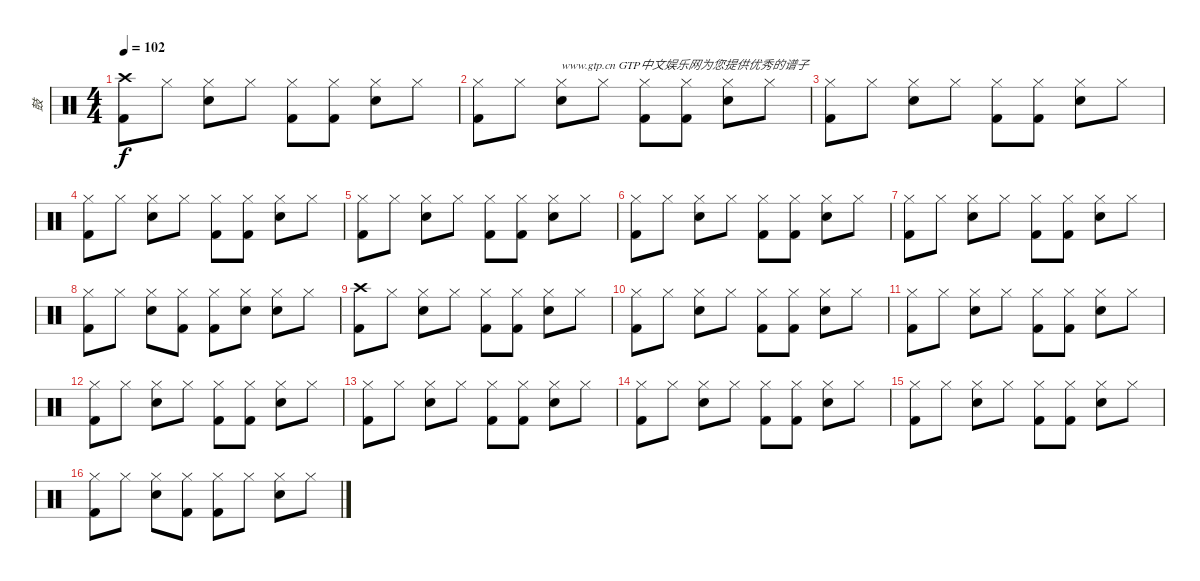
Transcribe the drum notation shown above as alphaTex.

\track ("鼓" "鼓") {instrument percussion}
\staff {score}
\articulation defaults
\ts (4 4)
\tempo 102
\clef neutral
\ks c
("Crash high (hit)" "Kick (hit) 2").8{dy f} "Hi-Hat (closed)".8 ("Hi-Hat (closed)" "Electric Snare (hit)").8 "Hi-Hat (closed)".8 ("Hi-Hat (closed)" "Kick (hit) 2").8 ("Hi-Hat (closed)" "Kick (hit) 2").8 ("Hi-Hat (closed)" "Electric Snare (hit)").8 "Hi-Hat (closed)".8 |
("Hi-Hat (closed)" "Kick (hit) 2").8 "Hi-Hat (closed)".8 ("Hi-Hat (closed)" "Electric Snare (hit)").8{txt "www.gtp.cn GTP中文娱乐网为您提供优秀的谱子"} "Hi-Hat (closed)".8 ("Hi-Hat (closed)" "Kick (hit) 2").8 ("Hi-Hat (closed)" "Kick (hit) 2").8 ("Hi-Hat (closed)" "Electric Snare (hit)").8 "Hi-Hat (closed)".8 |
("Hi-Hat (closed)" "Kick (hit) 2").8 "Hi-Hat (closed)".8 ("Hi-Hat (closed)" "Electric Snare (hit)").8 "Hi-Hat (closed)".8 ("Hi-Hat (closed)" "Kick (hit) 2").8 ("Hi-Hat (closed)" "Kick (hit) 2").8 ("Hi-Hat (closed)" "Electric Snare (hit)").8 "Hi-Hat (closed)".8 |
("Hi-Hat (closed)" "Kick (hit) 2").8 "Hi-Hat (closed)".8 ("Hi-Hat (closed)" "Electric Snare (hit)").8 "Hi-Hat (closed)".8 ("Hi-Hat (closed)" "Kick (hit) 2").8 ("Hi-Hat (closed)" "Kick (hit) 2").8 ("Hi-Hat (closed)" "Electric Snare (hit)").8 "Hi-Hat (closed)".8 |
("Hi-Hat (closed)" "Kick (hit) 2").8 "Hi-Hat (closed)".8 ("Hi-Hat (closed)" "Electric Snare (hit)").8 "Hi-Hat (closed)".8 ("Hi-Hat (closed)" "Kick (hit) 2").8 ("Hi-Hat (closed)" "Kick (hit) 2").8 ("Hi-Hat (closed)" "Electric Snare (hit)").8 "Hi-Hat (closed)".8 |
("Hi-Hat (closed)" "Kick (hit) 2").8 "Hi-Hat (closed)".8 ("Hi-Hat (closed)" "Electric Snare (hit)").8 "Hi-Hat (closed)".8 ("Hi-Hat (closed)" "Kick (hit) 2").8 ("Hi-Hat (closed)" "Kick (hit) 2").8 ("Hi-Hat (closed)" "Electric Snare (hit)").8 "Hi-Hat (closed)".8 |
("Hi-Hat (closed)" "Kick (hit) 2").8 "Hi-Hat (closed)".8 ("Hi-Hat (closed)" "Electric Snare (hit)").8 "Hi-Hat (closed)".8 ("Hi-Hat (closed)" "Kick (hit) 2").8 ("Hi-Hat (closed)" "Kick (hit) 2").8 ("Hi-Hat (closed)" "Electric Snare (hit)").8 "Hi-Hat (closed)".8 |
("Hi-Hat (closed)" "Kick (hit) 2").8 "Hi-Hat (closed)".8 ("Hi-Hat (closed)" "Electric Snare (hit)").8 ("Hi-Hat (closed)" "Kick (hit) 2").8 ("Hi-Hat (closed)" "Kick (hit) 2").8 ("Hi-Hat (closed)" "Electric Snare (hit)").8 ("Hi-Hat (closed)" "Electric Snare (hit)").8 "Hi-Hat (closed)".8 |
("Crash high (hit)" "Kick (hit) 2").8 "Hi-Hat (closed)".8 ("Hi-Hat (closed)" "Electric Snare (hit)").8 "Hi-Hat (closed)".8 ("Hi-Hat (closed)" "Kick (hit) 2").8 ("Hi-Hat (closed)" "Kick (hit) 2").8 ("Hi-Hat (closed)" "Electric Snare (hit)").8 "Hi-Hat (closed)".8 |
("Hi-Hat (closed)" "Kick (hit) 2").8 "Hi-Hat (closed)".8 ("Hi-Hat (closed)" "Electric Snare (hit)").8 "Hi-Hat (closed)".8 ("Hi-Hat (closed)" "Kick (hit) 2").8 ("Hi-Hat (closed)" "Kick (hit) 2").8 ("Hi-Hat (closed)" "Electric Snare (hit)").8 "Hi-Hat (closed)".8 |
("Hi-Hat (closed)" "Kick (hit) 2").8 "Hi-Hat (closed)".8 ("Hi-Hat (closed)" "Electric Snare (hit)").8 "Hi-Hat (closed)".8 ("Hi-Hat (closed)" "Kick (hit) 2").8 ("Hi-Hat (closed)" "Kick (hit) 2").8 ("Hi-Hat (closed)" "Electric Snare (hit)").8 "Hi-Hat (closed)".8 |
("Hi-Hat (closed)" "Kick (hit) 2").8 "Hi-Hat (closed)".8 ("Hi-Hat (closed)" "Electric Snare (hit)").8 "Hi-Hat (closed)".8 ("Hi-Hat (closed)" "Kick (hit) 2").8 ("Hi-Hat (closed)" "Kick (hit) 2").8 ("Hi-Hat (closed)" "Electric Snare (hit)").8 "Hi-Hat (closed)".8 |
("Hi-Hat (closed)" "Kick (hit) 2").8 "Hi-Hat (closed)".8 ("Hi-Hat (closed)" "Electric Snare (hit)").8 "Hi-Hat (closed)".8 ("Hi-Hat (closed)" "Kick (hit) 2").8 ("Hi-Hat (closed)" "Kick (hit) 2").8 ("Hi-Hat (closed)" "Electric Snare (hit)").8 "Hi-Hat (closed)".8 |
("Hi-Hat (closed)" "Kick (hit) 2").8 "Hi-Hat (closed)".8 ("Hi-Hat (closed)" "Electric Snare (hit)").8 "Hi-Hat (closed)".8 ("Hi-Hat (closed)" "Kick (hit) 2").8 ("Hi-Hat (closed)" "Kick (hit) 2").8 ("Hi-Hat (closed)" "Electric Snare (hit)").8 "Hi-Hat (closed)".8 |
("Hi-Hat (closed)" "Kick (hit) 2").8 "Hi-Hat (closed)".8 ("Hi-Hat (closed)" "Electric Snare (hit)").8 "Hi-Hat (closed)".8 ("Hi-Hat (closed)" "Kick (hit) 2").8 ("Hi-Hat (closed)" "Kick (hit) 2").8 ("Hi-Hat (closed)" "Electric Snare (hit)").8 "Hi-Hat (closed)".8 |
("Hi-Hat (closed)" "Kick (hit) 2").8 "Hi-Hat (closed)".8 ("Hi-Hat (closed)" "Electric Snare (hit)").8 ("Hi-Hat (closed)" "Kick (hit) 2").8 ("Hi-Hat (closed)" "Kick (hit) 2").8 "Hi-Hat (closed)".8 ("Hi-Hat (closed)" "Electric Snare (hit)").8 "Hi-Hat (closed)".8
